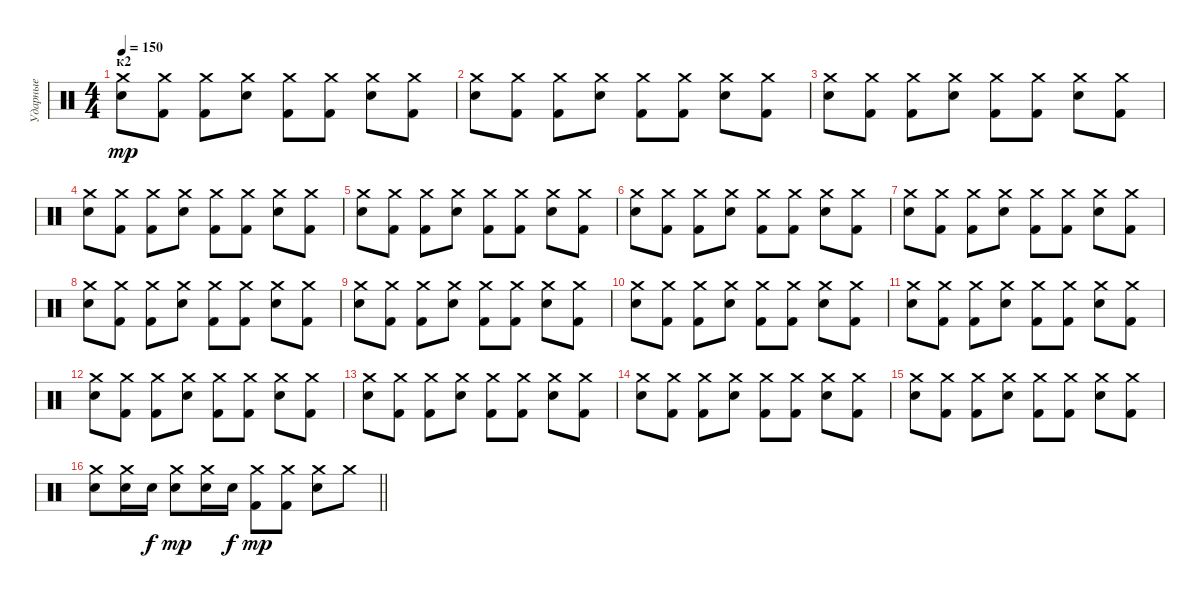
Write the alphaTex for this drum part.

\track ("Ударные" "Ударные") {instrument percussion}
\staff {score}
\articulation defaults
\ts (4 4)
\section ("" "к2")
\tempo 150
\clef neutral
\ks c
("Crash medium (hit)" "Snare (hit) 2").8{dy mp} ("Crash medium (hit)" "Kick (hit) 2").8 ("Crash medium (hit)" "Kick (hit) 2").8 ("Crash medium (hit)" "Snare (hit) 2").8 ("Crash medium (hit)" "Kick (hit) 2").8 ("Crash medium (hit)" "Kick (hit) 2").8 ("Crash medium (hit)" "Snare (hit) 2").8 ("Crash medium (hit)" "Kick (hit) 2").8 |
("Crash medium (hit)" "Snare (hit) 2").8 ("Crash medium (hit)" "Kick (hit) 2").8 ("Crash medium (hit)" "Kick (hit) 2").8 ("Crash medium (hit)" "Snare (hit) 2").8 ("Crash medium (hit)" "Kick (hit) 2").8 ("Crash medium (hit)" "Kick (hit) 2").8 ("Crash medium (hit)" "Snare (hit) 2").8 ("Crash medium (hit)" "Kick (hit) 2").8 |
("Crash medium (hit)" "Snare (hit) 2").8 ("Crash medium (hit)" "Kick (hit) 2").8 ("Crash medium (hit)" "Kick (hit) 2").8 ("Crash medium (hit)" "Snare (hit) 2").8 ("Crash medium (hit)" "Kick (hit) 2").8 ("Crash medium (hit)" "Kick (hit) 2").8 ("Crash medium (hit)" "Snare (hit) 2").8 ("Crash medium (hit)" "Kick (hit) 2").8 |
("Crash medium (hit)" "Snare (hit) 2").8 ("Crash medium (hit)" "Kick (hit) 2").8 ("Crash medium (hit)" "Kick (hit) 2").8 ("Crash medium (hit)" "Snare (hit) 2").8 ("Crash medium (hit)" "Kick (hit) 2").8 ("Crash medium (hit)" "Kick (hit) 2").8 ("Crash medium (hit)" "Snare (hit) 2").8 ("Crash medium (hit)" "Kick (hit) 2").8 |
("Crash medium (hit)" "Snare (hit) 2").8 ("Crash medium (hit)" "Kick (hit) 2").8 ("Crash medium (hit)" "Kick (hit) 2").8 ("Crash medium (hit)" "Snare (hit) 2").8 ("Crash medium (hit)" "Kick (hit) 2").8 ("Crash medium (hit)" "Kick (hit) 2").8 ("Crash medium (hit)" "Snare (hit) 2").8 ("Crash medium (hit)" "Kick (hit) 2").8 |
("Crash medium (hit)" "Snare (hit) 2").8 ("Crash medium (hit)" "Kick (hit) 2").8 ("Crash medium (hit)" "Kick (hit) 2").8 ("Crash medium (hit)" "Snare (hit) 2").8 ("Crash medium (hit)" "Kick (hit) 2").8 ("Crash medium (hit)" "Kick (hit) 2").8 ("Crash medium (hit)" "Snare (hit) 2").8 ("Crash medium (hit)" "Kick (hit) 2").8 |
("Crash medium (hit)" "Snare (hit) 2").8 ("Crash medium (hit)" "Kick (hit) 2").8 ("Crash medium (hit)" "Kick (hit) 2").8 ("Crash medium (hit)" "Snare (hit) 2").8 ("Crash medium (hit)" "Kick (hit) 2").8 ("Crash medium (hit)" "Kick (hit) 2").8 ("Crash medium (hit)" "Snare (hit) 2").8 ("Crash medium (hit)" "Kick (hit) 2").8 |
("Crash medium (hit)" "Snare (hit) 2").8 ("Crash medium (hit)" "Kick (hit) 2").8 ("Crash medium (hit)" "Kick (hit) 2").8 ("Crash medium (hit)" "Snare (hit) 2").8 ("Crash medium (hit)" "Kick (hit) 2").8 ("Crash medium (hit)" "Kick (hit) 2").8 ("Crash medium (hit)" "Snare (hit) 2").8 ("Crash medium (hit)" "Kick (hit) 2").8 |
("Crash medium (hit)" "Snare (hit) 2").8 ("Crash medium (hit)" "Kick (hit) 2").8 ("Crash medium (hit)" "Kick (hit) 2").8 ("Crash medium (hit)" "Snare (hit) 2").8 ("Crash medium (hit)" "Kick (hit) 2").8 ("Crash medium (hit)" "Kick (hit) 2").8 ("Crash medium (hit)" "Snare (hit) 2").8 ("Crash medium (hit)" "Kick (hit) 2").8 |
("Crash medium (hit)" "Snare (hit) 2").8 ("Crash medium (hit)" "Kick (hit) 2").8 ("Crash medium (hit)" "Kick (hit) 2").8 ("Crash medium (hit)" "Snare (hit) 2").8 ("Crash medium (hit)" "Kick (hit) 2").8 ("Crash medium (hit)" "Kick (hit) 2").8 ("Crash medium (hit)" "Snare (hit) 2").8 ("Crash medium (hit)" "Kick (hit) 2").8 |
("Crash medium (hit)" "Snare (hit) 2").8 ("Crash medium (hit)" "Kick (hit) 2").8 ("Crash medium (hit)" "Kick (hit) 2").8 ("Crash medium (hit)" "Snare (hit) 2").8 ("Crash medium (hit)" "Kick (hit) 2").8 ("Crash medium (hit)" "Kick (hit) 2").8 ("Crash medium (hit)" "Snare (hit) 2").8 ("Crash medium (hit)" "Kick (hit) 2").8 |
("Crash medium (hit)" "Snare (hit) 2").8 ("Crash medium (hit)" "Kick (hit) 2").8 ("Crash medium (hit)" "Kick (hit) 2").8 ("Crash medium (hit)" "Snare (hit) 2").8 ("Crash medium (hit)" "Kick (hit) 2").8 ("Crash medium (hit)" "Kick (hit) 2").8 ("Crash medium (hit)" "Snare (hit) 2").8 ("Crash medium (hit)" "Kick (hit) 2").8 |
("Crash medium (hit)" "Snare (hit) 2").8 ("Crash medium (hit)" "Kick (hit) 2").8 ("Crash medium (hit)" "Kick (hit) 2").8 ("Crash medium (hit)" "Snare (hit) 2").8 ("Crash medium (hit)" "Kick (hit) 2").8 ("Crash medium (hit)" "Kick (hit) 2").8 ("Crash medium (hit)" "Snare (hit) 2").8 ("Crash medium (hit)" "Kick (hit) 2").8 |
("Crash medium (hit)" "Snare (hit) 2").8 ("Crash medium (hit)" "Kick (hit) 2").8 ("Crash medium (hit)" "Kick (hit) 2").8 ("Crash medium (hit)" "Snare (hit) 2").8 ("Crash medium (hit)" "Kick (hit) 2").8 ("Crash medium (hit)" "Kick (hit) 2").8 ("Crash medium (hit)" "Snare (hit) 2").8 ("Crash medium (hit)" "Kick (hit) 2").8 |
("Crash medium (hit)" "Snare (hit) 2").8 ("Crash medium (hit)" "Kick (hit) 2").8 ("Crash medium (hit)" "Kick (hit) 2").8 ("Crash medium (hit)" "Snare (hit) 2").8 ("Crash medium (hit)" "Kick (hit) 2").8 ("Crash medium (hit)" "Kick (hit) 2").8 ("Crash medium (hit)" "Snare (hit) 2").8 ("Crash medium (hit)" "Kick (hit) 2").8 |
\barLineRight lightlight
("Crash medium (hit)" "Snare (hit) 2").8 ("Crash medium (hit)" "Snare (hit) 2").16 "Snare (hit) 2".16{dy f} ("Crash medium (hit)" "Snare (hit) 2").8{dy mp} ("Crash medium (hit)" "Snare (hit) 2").16 "Snare (hit) 2".16{dy f} ("Crash medium (hit)" "Kick (hit) 2").8{dy mp} ("Crash medium (hit)" "Kick (hit) 2").8 ("Crash medium (hit)" "Snare (hit) 2").8 "Crash medium (hit)".8
